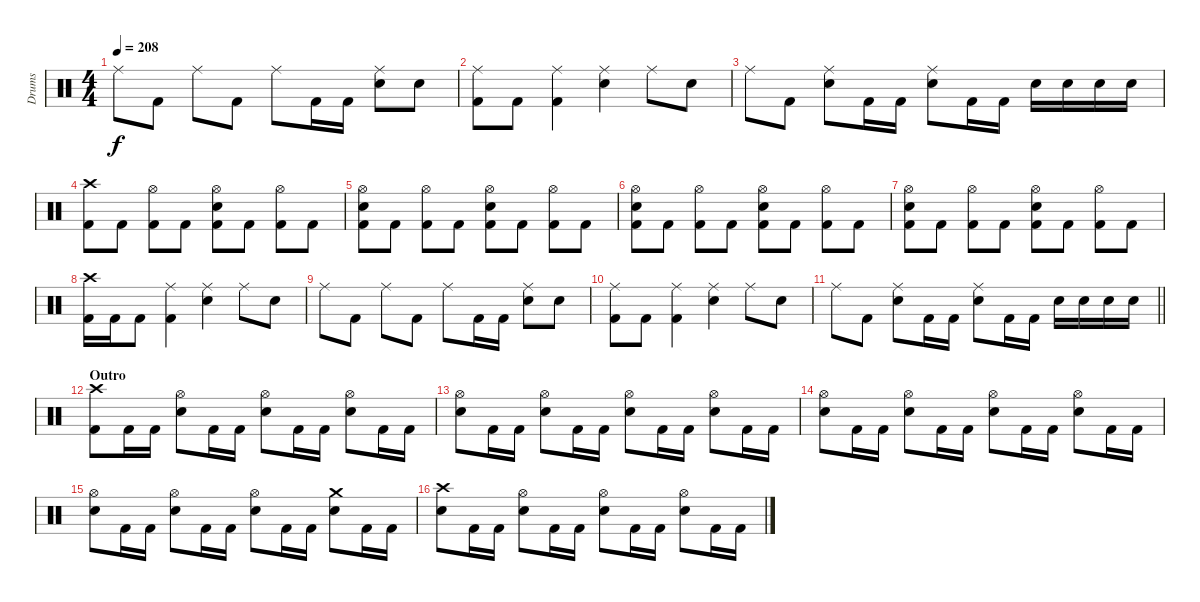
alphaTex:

\track ("Drums" "Drums") {instrument percussion}
\staff {score}
\articulation defaults
\ts (4 4)
\tempo 208
\clef neutral
\ks c "Ride (middle)".8{dy f} "Kick (hit) 2".8 "Ride (middle)".8 "Kick (hit) 2".8 "Ride (middle)".8 "Kick (hit) 2".16 "Kick (hit) 2".16
("Ride (middle)" "Snare (hit) 2").8 "Snare (hit) 2".8 |
("Ride (middle)" "Kick (hit) 2").8 "Kick (hit) 2".8 ("Ride (middle)" "Kick (hit) 2").4 ("Ride (middle)" "Snare (hit) 2").4 "Ride (middle)".8 "Snare (hit) 2".8 |
"Ride (middle)".8 "Kick (hit) 2".8 ("Ride (middle)" "Snare (hit) 2").8 "Kick (hit) 2".16 "Kick (hit) 2".16 ("Ride (middle)" "Snare (hit) 2").8 "Kick (hit) 2".16 "Kick (hit) 2".16 "Snare (hit) 2".16 "Snare (hit) 2".16 "Snare (hit) 2".16 "Snare (hit) 2".16 |
("Crash high (hit)" "Kick (hit) 2").8 "Kick (hit) 2".8 ("Hi-Hat (open)" "Kick (hit) 2").8 "Kick (hit) 2".8 ("Hi-Hat (open)" "Snare (hit) 2" "Kick (hit) 2").8 "Kick (hit) 2".8 ("Hi-Hat (open)" "Kick (hit) 2").8 "Kick (hit) 2".8 |
("Hi-Hat (open)" "Snare (hit) 2" "Kick (hit) 2").8 "Kick (hit) 2".8 ("Hi-Hat (open)" "Kick (hit) 2").8 "Kick (hit) 2".8 ("Hi-Hat (open)" "Snare (hit) 2" "Kick (hit) 2").8 "Kick (hit) 2".8 ("Hi-Hat (open)" "Kick (hit) 2").8 "Kick (hit) 2".8 |
("Hi-Hat (open)" "Snare (hit) 2" "Kick (hit) 2").8 "Kick (hit) 2".8 ("Hi-Hat (open)" "Kick (hit) 2").8 "Kick (hit) 2".8 ("Hi-Hat (open)" "Snare (hit) 2" "Kick (hit) 2").8 "Kick (hit) 2".8 ("Hi-Hat (open)" "Kick (hit) 2").8 "Kick (hit) 2".8 |
("Hi-Hat (open)" "Snare (hit) 2" "Kick (hit) 2").8 "Kick (hit) 2".8 ("Hi-Hat (open)" "Kick (hit) 2").8 "Kick (hit) 2".8 ("Hi-Hat (open)" "Snare (hit) 2" "Kick (hit) 2").8 "Kick (hit) 2".8 ("Hi-Hat (open)" "Kick (hit) 2").8 "Kick (hit) 2".8 |
("Crash high (hit)" "Kick (hit) 2").16 "Kick (hit) 2".16 "Kick (hit) 2".8 ("Ride (middle)" "Kick (hit) 2").4 ("Ride (middle)" "Snare (hit) 2").4 "Ride (middle)".8 "Snare (hit) 2".8 |
"Ride (middle)".8 "Kick (hit) 2".8 "Ride (middle)".8 "Kick (hit) 2".8 "Ride (middle)".8 "Kick (hit) 2".16 "Kick (hit) 2".16 ("Ride (middle)" "Snare (hit) 2").8 "Snare (hit) 2".8 |
("Ride (middle)" "Kick (hit) 2").8 "Kick (hit) 2".8 ("Ride (middle)" "Kick (hit) 2").4 ("Ride (middle)" "Snare (hit) 2").4 "Ride (middle)".8 "Snare (hit) 2".8 |
\barLineRight lightlight "Ride (middle)".8 "Kick (hit) 2".8
("Ride (middle)" "Snare (hit) 2").8 "Kick (hit) 2".16 "Kick (hit) 2".16 ("Ride (middle)" "Snare (hit) 2").8 "Kick (hit) 2".16 "Kick (hit) 2".16 "Snare (hit) 2".16 "Snare (hit) 2".16 "Snare (hit) 2".16 "Snare (hit) 2".16 |
\section ("" "Outro")
("Crash high (hit)" "Kick (hit) 2").8 "Kick (hit) 2".16 "Kick (hit) 2".16 ("Hi-Hat (open)" "Snare (hit) 2").8 "Kick (hit) 2".16 "Kick (hit) 2".16 ("Hi-Hat (open)" "Snare (hit) 2").8 "Kick (hit) 2".16 "Kick (hit) 2".16 ("Hi-Hat (open)" "Snare (hit) 2").8 "Kick (hit) 2".16 "Kick (hit) 2".16 |
("Hi-Hat (open)" "Snare (hit) 2").8 "Kick (hit) 2".16 "Kick (hit) 2".16 ("Hi-Hat (open)" "Snare (hit) 2").8 "Kick (hit) 2".16 "Kick (hit) 2".16 ("Hi-Hat (open)" "Snare (hit) 2").8 "Kick (hit) 2".16 "Kick (hit) 2".16 ("Hi-Hat (open)" "Snare (hit) 2").8 "Kick (hit) 2".16 "Kick (hit) 2".16 |
("Hi-Hat (open)" "Snare (hit) 2").8 "Kick (hit) 2".16 "Kick (hit) 2".16 ("Hi-Hat (open)" "Snare (hit) 2").8 "Kick (hit) 2".16 "Kick (hit) 2".16 ("Hi-Hat (open)" "Snare (hit) 2").8 "Kick (hit) 2".16 "Kick (hit) 2".16 ("Hi-Hat (open)" "Snare (hit) 2").8 "Kick (hit) 2".16 "Kick (hit) 2".16 |
("Hi-Hat (open)" "Snare (hit) 2").8 "Kick (hit) 2".16 "Kick (hit) 2".16 ("Hi-Hat (open)" "Snare (hit) 2").8 "Kick (hit) 2".16 "Kick (hit) 2".16 ("Hi-Hat (open)" "Snare (hit) 2").8 "Kick (hit) 2".16 "Kick (hit) 2".16 ("Crash medium (hit)" "Snare (hit) 2").8 "Kick (hit) 2".16 "Kick (hit) 2".16 |
("Crash high (hit)" "Snare (hit) 2").8 "Kick (hit) 2".16 "Kick (hit) 2".16 ("Hi-Hat (open)" "Snare (hit) 2").8 "Kick (hit) 2".16 "Kick (hit) 2".16 ("Hi-Hat (open)" "Snare (hit) 2").8 "Kick (hit) 2".16 "Kick (hit) 2".16 ("Hi-Hat (open)" "Snare (hit) 2").8 "Kick (hit) 2".16 "Kick (hit) 2".16
